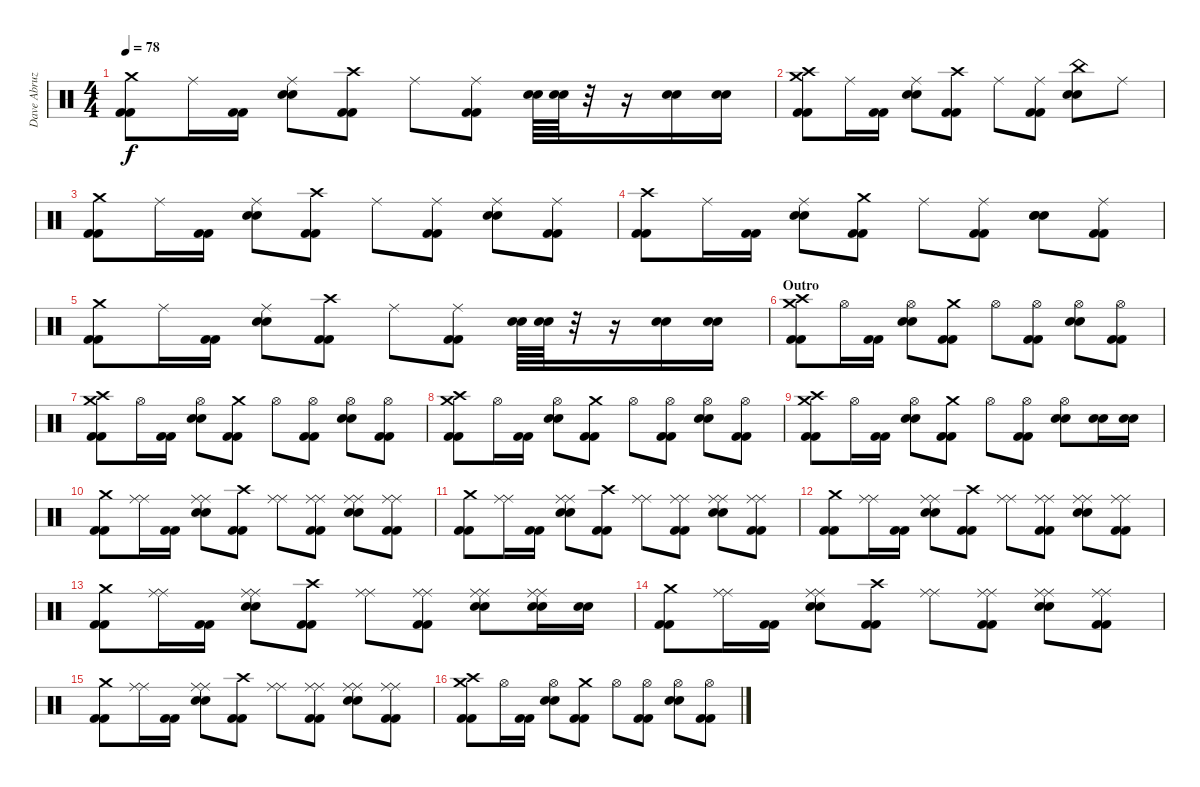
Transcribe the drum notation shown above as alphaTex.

\track ("Dave Abruzzese (live)" "Dave Abruz") {instrument percussion}
\staff {score}
\articulation defaults
\ts (4 4)
\tempo 78
\clef neutral
\ks c
("Crash medium (hit)" "Kick (hit) 2" "Kick (hit) 2").8{dy f} "Ride (middle)".16 ("Kick (hit) 2" "Kick (hit) 2").16 ("Ride (middle)" "Electric Snare (hit)" "Electric Snare (hit)").8 ("Crash high (hit)" "Kick (hit) 2" "Kick (hit) 2").8 "Ride (middle)".8 ("Ride (middle)" "Kick (hit) 2" "Kick (hit) 2").8 ("Electric Snare (hit)" "Electric Snare (hit)").64 ("Electric Snare (hit)" "Electric Snare (hit)").64 r.32 r.16 ("Electric Snare (hit)" "Electric Snare (hit)").16 ("Electric Snare (hit)" "Electric Snare (hit)").16 |
("Crash medium (hit)" "Crash high (hit)" "Kick (hit) 2" "Kick (hit) 2").8 "Ride (middle)".16 ("Kick (hit) 2" "Kick (hit) 2").16 ("Ride (middle)" "Electric Snare (hit)" "Electric Snare (hit)").8 ("Crash high (hit)" "Kick (hit) 2" "Kick (hit) 2").8 "Ride (middle)".8 ("Ride (middle)" "Kick (hit) 2" "Kick (hit) 2").8 ("China (hit)" "Electric Snare (hit)" "Electric Snare (hit)").8 "Ride (middle)".8 |
("Crash medium (hit)" "Kick (hit) 2" "Kick (hit) 2").8 "Ride (middle)".16 ("Kick (hit) 2" "Kick (hit) 2").16 ("Ride (middle)" "Electric Snare (hit)" "Electric Snare (hit)").8 ("Crash high (hit)" "Kick (hit) 2" "Kick (hit) 2").8 "Ride (middle)".8 ("Ride (middle)" "Kick (hit) 2" "Kick (hit) 2").8 ("Ride (middle)" "Electric Snare (hit)" "Electric Snare (hit)").8 ("Ride (middle)" "Kick (hit) 2" "Kick (hit) 2").8 |
("Crash high (hit)" "Kick (hit) 2" "Kick (hit) 2").8 "Ride (middle)".16 ("Kick (hit) 2" "Kick (hit) 2").16 ("Ride (middle)" "Electric Snare (hit)" "Electric Snare (hit)").8 ("Crash medium (hit)" "Kick (hit) 2" "Kick (hit) 2").8 "Ride (middle)".8 ("Ride (middle)" "Kick (hit) 2" "Kick (hit) 2").8 ("Snare (hit)" "Electric Snare (hit)" "Electric Snare (hit)").8 ("Ride (middle)" "Kick (hit) 2" "Kick (hit) 2").8 |
("Crash medium (hit)" "Kick (hit) 2" "Kick (hit) 2").8 "Ride (middle)".16 ("Kick (hit) 2" "Kick (hit) 2").16 ("Ride (middle)" "Electric Snare (hit)" "Electric Snare (hit)").8 ("Crash high (hit)" "Kick (hit) 2" "Kick (hit) 2").8 "Ride (middle)".8 ("Ride (middle)" "Kick (hit) 2" "Kick (hit) 2").8 ("Electric Snare (hit)" "Electric Snare (hit)").64 ("Electric Snare (hit)" "Electric Snare (hit)").64 r.32 r.16 ("Electric Snare (hit)" "Electric Snare (hit)").16 ("Electric Snare (hit)" "Electric Snare (hit)").16 |
\section ("" "Outro")
("Crash medium (hit)" "Crash high (hit)" "Kick (hit) 2" "Kick (hit) 2").8 "Hi-Hat (open)".16 ("Kick (hit) 2" "Kick (hit) 2").16 ("Hi-Hat (open)" "Electric Snare (hit)" "Electric Snare (hit)").8 ("Crash medium (hit)" "Kick (hit) 2" "Kick (hit) 2").8 "Hi-Hat (open)".8 ("Hi-Hat (open)" "Kick (hit) 2" "Kick (hit) 2").8 ("Hi-Hat (open)" "Electric Snare (hit)" "Electric Snare (hit)").8 ("Hi-Hat (open)" "Kick (hit) 2" "Kick (hit) 2").8 |
("Crash medium (hit)" "Crash high (hit)" "Kick (hit) 2" "Kick (hit) 2").8 "Hi-Hat (open)".16 ("Kick (hit) 2" "Kick (hit) 2").16 ("Hi-Hat (open)" "Electric Snare (hit)" "Electric Snare (hit)").8 ("Crash medium (hit)" "Kick (hit) 2" "Kick (hit) 2").8 "Hi-Hat (open)".8 ("Hi-Hat (open)" "Kick (hit) 2" "Kick (hit) 2").8 ("Hi-Hat (open)" "Electric Snare (hit)" "Electric Snare (hit)").8 ("Hi-Hat (open)" "Kick (hit) 2" "Kick (hit) 2").8 |
("Crash medium (hit)" "Crash high (hit)" "Kick (hit) 2" "Kick (hit) 2").8 "Hi-Hat (open)".16 ("Kick (hit) 2" "Kick (hit) 2").16 ("Hi-Hat (open)" "Electric Snare (hit)" "Electric Snare (hit)").8 ("Crash medium (hit)" "Kick (hit) 2" "Kick (hit) 2").8 "Hi-Hat (open)".8 ("Hi-Hat (open)" "Kick (hit) 2" "Kick (hit) 2").8 ("Hi-Hat (open)" "Electric Snare (hit)" "Electric Snare (hit)").8 ("Hi-Hat (open)" "Kick (hit) 2" "Kick (hit) 2").8 |
("Crash medium (hit)" "Crash high (hit)" "Kick (hit) 2" "Kick (hit) 2").8 "Hi-Hat (open)".16 ("Kick (hit) 2" "Kick (hit) 2").16 ("Hi-Hat (open)" "Electric Snare (hit)" "Electric Snare (hit)").8 ("Crash medium (hit)" "Kick (hit) 2" "Kick (hit) 2").8 "Hi-Hat (open)".8 ("Hi-Hat (open)" "Kick (hit) 2" "Kick (hit) 2").8 ("Hi-Hat (open)" "Electric Snare (hit)" "Electric Snare (hit)").8 ("Electric Snare (hit)" "Electric Snare (hit)").16 ("Electric Snare (hit)" "Electric Snare (hit)").16 |
("Crash medium (hit)" "Kick (hit) 2" "Kick (hit) 2").8 ("Ride (middle)" "Ride (middle)").16 ("Kick (hit) 2" "Kick (hit) 2").16 ("Ride (middle)" "Ride (middle)" "Electric Snare (hit)" "Electric Snare (hit)").8 ("Crash high (hit)" "Kick (hit) 2" "Kick (hit) 2").8 ("Ride (middle)" "Ride (middle)").8 ("Ride (middle)" "Ride (middle)" "Kick (hit) 2" "Kick (hit) 2").8 ("Ride (middle)" "Ride (middle)" "Electric Snare (hit)" "Electric Snare (hit)").8 ("Ride (middle)" "Ride (middle)" "Kick (hit) 2" "Kick (hit) 2").8 |
("Crash medium (hit)" "Kick (hit) 2" "Kick (hit) 2").8 ("Ride (middle)" "Ride (middle)").16 ("Kick (hit) 2" "Kick (hit) 2").16 ("Ride (middle)" "Ride (middle)" "Electric Snare (hit)" "Electric Snare (hit)").8 ("Crash high (hit)" "Kick (hit) 2" "Kick (hit) 2").8 ("Ride (middle)" "Ride (middle)").8 ("Ride (middle)" "Ride (middle)" "Kick (hit) 2" "Kick (hit) 2").8 ("Ride (middle)" "Ride (middle)" "Electric Snare (hit)" "Electric Snare (hit)").8 ("Ride (middle)" "Ride (middle)" "Kick (hit) 2" "Kick (hit) 2").8 |
("Crash medium (hit)" "Kick (hit) 2" "Kick (hit) 2").8 ("Ride (middle)" "Ride (middle)").16 ("Kick (hit) 2" "Kick (hit) 2").16 ("Ride (middle)" "Ride (middle)" "Electric Snare (hit)" "Electric Snare (hit)").8 ("Crash high (hit)" "Kick (hit) 2" "Kick (hit) 2").8 ("Ride (middle)" "Ride (middle)").8 ("Ride (middle)" "Ride (middle)" "Kick (hit) 2" "Kick (hit) 2").8 ("Ride (middle)" "Ride (middle)" "Electric Snare (hit)" "Electric Snare (hit)").8 ("Ride (middle)" "Ride (middle)" "Kick (hit) 2" "Kick (hit) 2").8 |
("Crash medium (hit)" "Kick (hit) 2" "Kick (hit) 2").8 ("Ride (middle)" "Ride (middle)").16 ("Kick (hit) 2" "Kick (hit) 2").16 ("Ride (middle)" "Ride (middle)" "Electric Snare (hit)" "Electric Snare (hit)").8 ("Crash high (hit)" "Kick (hit) 2" "Kick (hit) 2").8 ("Ride (middle)" "Ride (middle)").8 ("Ride (middle)" "Ride (middle)" "Kick (hit) 2" "Kick (hit) 2").8 ("Ride (middle)" "Ride (middle)" "Electric Snare (hit)" "Electric Snare (hit)").8 ("Ride (middle)" "Ride (middle)" "Electric Snare (hit)" "Electric Snare (hit)").16 ("Electric Snare (hit)" "Electric Snare (hit)").16 |
("Crash medium (hit)" "Kick (hit) 2" "Kick (hit) 2").8 ("Ride (middle)" "Ride (middle)").16 ("Kick (hit) 2" "Kick (hit) 2").16 ("Ride (middle)" "Ride (middle)" "Electric Snare (hit)" "Electric Snare (hit)").8 ("Crash high (hit)" "Kick (hit) 2" "Kick (hit) 2").8 ("Ride (middle)" "Ride (middle)").8 ("Ride (middle)" "Ride (middle)" "Kick (hit) 2" "Kick (hit) 2").8 ("Ride (middle)" "Ride (middle)" "Electric Snare (hit)" "Electric Snare (hit)").8 ("Ride (middle)" "Ride (middle)" "Kick (hit) 2" "Kick (hit) 2").8 |
("Crash medium (hit)" "Kick (hit) 2" "Kick (hit) 2").8 ("Ride (middle)" "Ride (middle)").16 ("Kick (hit) 2" "Kick (hit) 2").16 ("Ride (middle)" "Ride (middle)" "Electric Snare (hit)" "Electric Snare (hit)").8 ("Crash high (hit)" "Kick (hit) 2" "Kick (hit) 2").8 ("Ride (middle)" "Ride (middle)").8 ("Ride (middle)" "Ride (middle)" "Kick (hit) 2" "Kick (hit) 2").8 ("Ride (middle)" "Ride (middle)" "Electric Snare (hit)" "Electric Snare (hit)").8 ("Ride (middle)" "Ride (middle)" "Kick (hit) 2" "Kick (hit) 2").8 |
("Crash medium (hit)" "Crash high (hit)" "Kick (hit) 2" "Kick (hit) 2").8 "Hi-Hat (open)".16 ("Kick (hit) 2" "Kick (hit) 2").16 ("Hi-Hat (open)" "Electric Snare (hit)" "Electric Snare (hit)").8 ("Crash medium (hit)" "Kick (hit) 2" "Kick (hit) 2").8 "Hi-Hat (open)".8 ("Hi-Hat (open)" "Kick (hit) 2" "Kick (hit) 2").8 ("Hi-Hat (open)" "Electric Snare (hit)" "Electric Snare (hit)").8 ("Hi-Hat (open)" "Kick (hit) 2" "Kick (hit) 2").8
